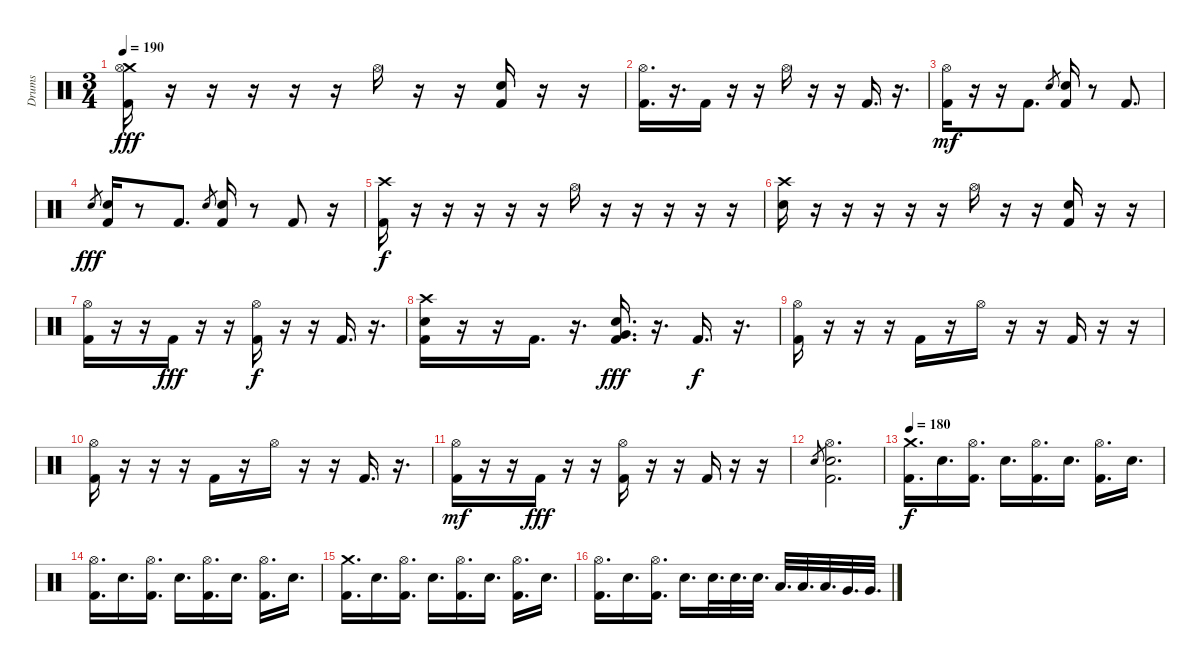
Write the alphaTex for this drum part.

\track ("Drums" "Drums") {instrument percussion}
\staff {score}
\articulation defaults
\ts (3 4)
\tempo 190
\clef neutral
\ks c
("Crash medium (hit)" "Hi-Hat (open)" "Kick (hit) 2").16{dy fff} r.16 r.16 r.16 r.16 r.16 "Hi-Hat (open)".16 r.16 r.16 ("Electric Snare (hit)" "Kick (hit) 2").16 r.16 r.16 |
("Hi-Hat (open)" "Kick (hit) 2").16{d} r.16{d} "Kick (hit) 2".16 r.16 r.16 "Hi-Hat (open)".16 r.16 r.16 "Kick (hit) 2".16{d} r.16{d} |
("Hi-Hat (open)" "Kick (hit) 2").16{dy mf} r.16 r.16 "Kick (hit) 2".8{d} "Electric Snare (hit)".8{gr} ("Electric Snare (hit)" "Kick (hit) 2").16 r.8 "Kick (hit) 2".8{d} |
"Electric Snare (hit)".8{gr dy fff} ("Electric Snare (hit)" "Kick (hit) 2").16 r.8 "Kick (hit) 2".8{d} "Electric Snare (hit)".8{gr} ("Electric Snare (hit)" "Kick (hit) 2").16 r.8 "Kick (hit) 2".8 r.16 |
("Crash high (hit)" "Kick (hit) 2").16{dy f} r.16 r.16 r.16 r.16 r.16 "Hi-Hat (open)".16 r.16 r.16 r.16 r.16 r.16 |
("Crash high (hit)" "Electric Snare (hit)").16 r.16 r.16 r.16 r.16 r.16 "Hi-Hat (open)".16 r.16 r.16 ("Electric Snare (hit)" "Kick (hit) 2").16 r.16 r.16 |
("Hi-Hat (open)" "Kick (hit) 2").16 r.16 r.16 "Kick (hit) 2".16{dy fff} r.16 r.16 ("Hi-Hat (open)" "Kick (hit) 2").16{dy f} r.16 r.16 "Kick (hit) 2".16{d} r.16{d} |
("Crash high (hit)" "Electric Snare (hit)" "Kick (hit) 2").16 r.16 r.16 "Kick (hit) 2".16{d} r.16{d} ("Very Low Tom (hit)" "Electric Snare (hit)" "Kick (hit) 2").16{d dy fff} r.16{d} "Kick (hit) 2".16{d dy f} r.16{d} |
("Hi-Hat (open)" "Kick (hit) 2").16 r.16 r.16 r.16 "Kick (hit) 2".16 r.16 "Hi-Hat (open)".16 r.16 r.16 "Kick (hit) 2".16 r.16 r.16 |
("Hi-Hat (open)" "Kick (hit) 2").16 r.16 r.16 r.16 "Kick (hit) 2".16 r.16 "Hi-Hat (open)".16 r.16 r.16 "Kick (hit) 2".16{d} r.16{d} |
("Hi-Hat (open)" "Kick (hit) 2").16{dy mf} r.16 r.16 "Kick (hit) 2".16{dy fff} r.16 r.16 ("Hi-Hat (open)" "Kick (hit) 2").16 r.16 r.16 "Kick (hit) 2".16 r.16 r.16 |
"Electric Snare (hit)".8{gr} ("Hi-Hat (open)" "Electric Snare (hit)" "Kick (hit) 2").2{d} |
\tempo 180
("Crash medium (hit)" "Kick (hit) 2").16{d dy f} "Electric Snare (hit)".16{d} ("Hi-Hat (open)" "Kick (hit) 2").16{d} "Electric Snare (hit)".16{d} ("Hi-Hat (open)" "Kick (hit) 2").16{d} "Electric Snare (hit)".16{d} ("Hi-Hat (open)" "Kick (hit) 2").16{d} "Electric Snare (hit)".16{d} |
("Hi-Hat (open)" "Kick (hit) 2").16{d} "Electric Snare (hit)".16{d} ("Hi-Hat (open)" "Kick (hit) 2").16{d} "Electric Snare (hit)".16{d} ("Hi-Hat (open)" "Kick (hit) 2").16{d} "Electric Snare (hit)".16{d} ("Hi-Hat (open)" "Kick (hit) 2").16{d} "Electric Snare (hit)".16{d} |
("Crash medium (hit)" "Kick (hit) 2").16{d} "Electric Snare (hit)".16{d} ("Hi-Hat (open)" "Kick (hit) 2").16{d} "Electric Snare (hit)".16{d} ("Hi-Hat (open)" "Kick (hit) 2").16{d} "Electric Snare (hit)".16{d} ("Hi-Hat (open)" "Kick (hit) 2").16{d} "Electric Snare (hit)".16{d} |
("Hi-Hat (open)" "Kick (hit) 2").16{d} "Electric Snare (hit)".16{d} ("Hi-Hat (open)" "Kick (hit) 2").16{d} "Electric Snare (hit)".16{d} "Electric Snare (hit)".32{d} "Electric Snare (hit)".32{d} "Electric Snare (hit)".32{d} "Low Tom (hit)".32{d} "Low Tom (hit)".32{d} "Low Tom (hit)".32{d} "Very Low Tom (hit)".32{d} "Very Low Tom (hit)".32{d}
